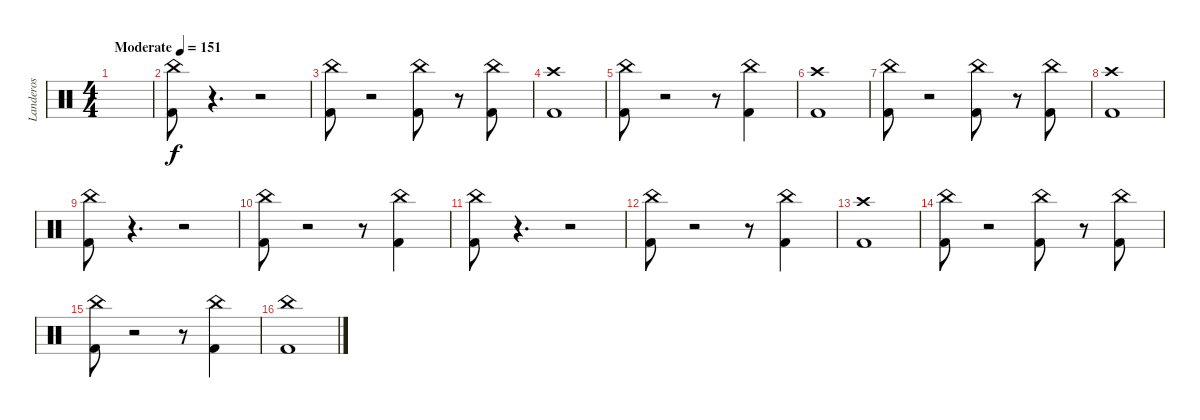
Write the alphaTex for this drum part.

\track ("Landeros" "Landeros") {instrument percussion}
\staff {score}
\articulation defaults
\ts (4 4)
\tempo (151 "Moderate")
\clef neutral
\ks c
|
("Kick (hit) 2" "China (hit)").8 r.4{d} r.2 |
("Kick (hit) 2" "China (hit)").8 r.2 ("Kick (hit) 2" "China (hit)").8 r.8 ("Kick (hit) 2" "China (hit)").8 |
("Kick (hit) 2" "Crash high (hit)").1 |
("Kick (hit) 2" "China (hit)").8 r.2 r.8 ("Kick (hit) 2" "China (hit)").4 |
("Kick (hit) 2" "Crash high (hit)").1 |
("Kick (hit) 2" "China (hit)").8 r.2 ("Kick (hit) 2" "China (hit)").8 r.8 ("Kick (hit) 2" "China (hit)").8 |
("Kick (hit) 2" "Crash high (hit)").1 |
("Kick (hit) 2" "China (hit)").8 r.4{d} r.2 |
("Kick (hit) 2" "China (hit)").8 r.2 r.8 ("Kick (hit) 2" "China (hit)").4 |
("Kick (hit) 2" "China (hit)").8 r.4{d} r.2 |
("Kick (hit) 2" "China (hit)").8 r.2 r.8 ("Kick (hit) 2" "China (hit)").4 |
("Kick (hit) 2" "Crash high (hit)").1 |
("Kick (hit) 2" "China (hit)").8 r.2 ("Kick (hit) 2" "China (hit)").8 r.8 ("Kick (hit) 2" "China (hit)").8 |
("Kick (hit) 2" "China (hit)").8 r.2 r.8 ("Kick (hit) 2" "China (hit)").4 |
("Kick (hit) 2" "China (hit)").1
